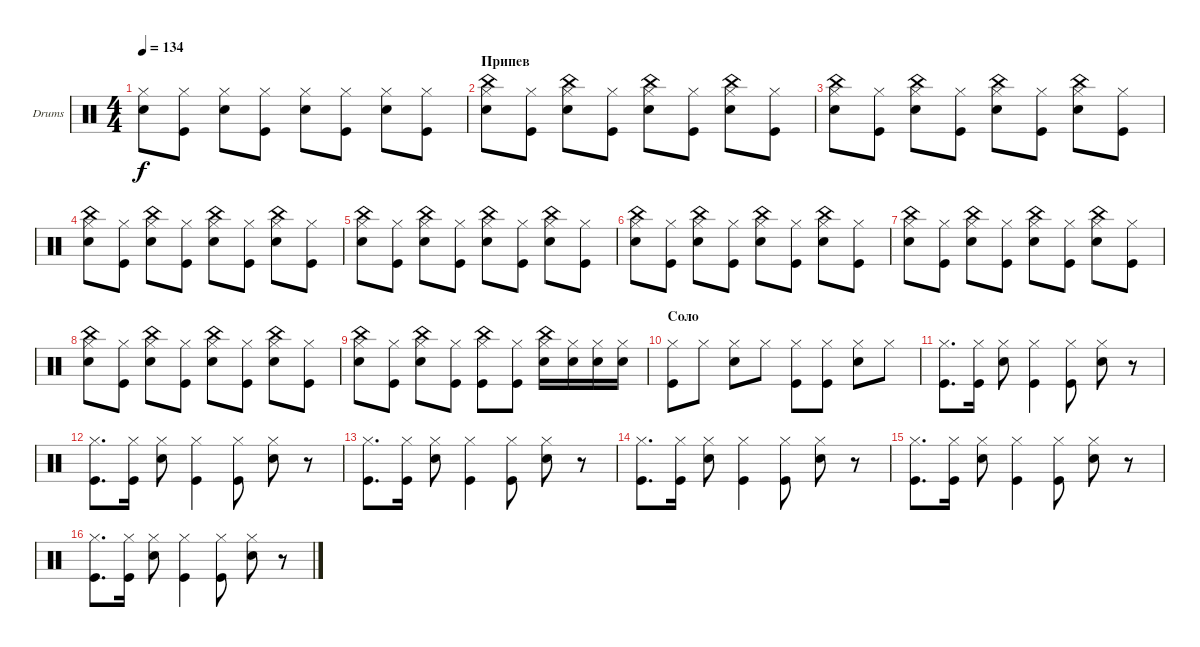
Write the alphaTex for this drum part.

\defaultSystemsLayout 4
\bracketExtendMode groupsimilarinstruments
\firstSystemTrackNameOrientation horizontal
\otherSystemsTrackNameOrientation horizontal
\track ("Drumkit" "Drums") {instrument percussion}
\staff {score}
\articulation defaults
\ts (4 4)
\tempo 134
\clef neutral
\ks c
("Snare (hit) 2" "Hi-Hat (closed)").8{dy f} ("Kick (hit)" "Hi-Hat (closed)").8 ("Snare (hit) 2" "Hi-Hat (closed)").8 ("Kick (hit)" "Hi-Hat (closed)").8 ("Snare (hit) 2" "Hi-Hat (closed)").8 ("Kick (hit)" "Hi-Hat (closed)").8 ("Snare (hit) 2" "Hi-Hat (closed)").8 ("Kick (hit)" "Hi-Hat (closed)").8 |
\section ("" "Припев")
("Snare (hit) 2" "Hi-Hat (closed)" "China (hit)").8 ("Kick (hit)" "Hi-Hat (closed)").8 ("Snare (hit) 2" "Hi-Hat (closed)" "China (hit)").8 ("Kick (hit)" "Hi-Hat (closed)").8 ("Snare (hit) 2" "Hi-Hat (closed)" "China (hit)").8 ("Kick (hit)" "Hi-Hat (closed)").8 ("Snare (hit) 2" "Hi-Hat (closed)" "China (hit)").8 ("Kick (hit)" "Hi-Hat (closed)").8 |
("Snare (hit) 2" "Hi-Hat (closed)" "China (hit)").8 ("Kick (hit)" "Hi-Hat (closed)").8 ("Snare (hit) 2" "Hi-Hat (closed)" "China (hit)").8 ("Kick (hit)" "Hi-Hat (closed)").8 ("Snare (hit) 2" "Hi-Hat (closed)" "China (hit)").8 ("Kick (hit)" "Hi-Hat (closed)").8 ("Snare (hit) 2" "Hi-Hat (closed)" "China (hit)").8 ("Kick (hit)" "Hi-Hat (closed)").8 |
("Snare (hit) 2" "Hi-Hat (closed)" "China (hit)").8 ("Kick (hit)" "Hi-Hat (closed)").8 ("Snare (hit) 2" "Hi-Hat (closed)" "China (hit)").8 ("Kick (hit)" "Hi-Hat (closed)").8 ("Snare (hit) 2" "Hi-Hat (closed)" "China (hit)").8 ("Kick (hit)" "Hi-Hat (closed)").8 ("Snare (hit) 2" "Hi-Hat (closed)" "China (hit)").8 ("Kick (hit)" "Hi-Hat (closed)").8 |
("Snare (hit) 2" "Hi-Hat (closed)" "China (hit)").8 ("Kick (hit)" "Hi-Hat (closed)").8 ("Snare (hit) 2" "Hi-Hat (closed)" "China (hit)").8 ("Kick (hit)" "Hi-Hat (closed)").8 ("Snare (hit) 2" "Hi-Hat (closed)" "China (hit)").8 ("Kick (hit)" "Hi-Hat (closed)").8 ("Snare (hit) 2" "Hi-Hat (closed)" "China (hit)").8 ("Kick (hit)" "Hi-Hat (closed)").8 |
("Snare (hit) 2" "Hi-Hat (closed)" "China (hit)").8 ("Kick (hit)" "Hi-Hat (closed)").8 ("Snare (hit) 2" "Hi-Hat (closed)" "China (hit)").8 ("Kick (hit)" "Hi-Hat (closed)").8 ("Snare (hit) 2" "Hi-Hat (closed)" "China (hit)").8 ("Kick (hit)" "Hi-Hat (closed)").8 ("Snare (hit) 2" "Hi-Hat (closed)" "China (hit)").8 ("Kick (hit)" "Hi-Hat (closed)").8 |
("Snare (hit) 2" "Hi-Hat (closed)" "China (hit)").8 ("Kick (hit)" "Hi-Hat (closed)").8 ("Snare (hit) 2" "Hi-Hat (closed)" "China (hit)").8 ("Kick (hit)" "Hi-Hat (closed)").8 ("Snare (hit) 2" "Hi-Hat (closed)" "China (hit)").8 ("Kick (hit)" "Hi-Hat (closed)").8 ("Snare (hit) 2" "Hi-Hat (closed)" "China (hit)").8 ("Kick (hit)" "Hi-Hat (closed)").8 |
("Snare (hit) 2" "Hi-Hat (closed)" "China (hit)").8 ("Kick (hit)" "Hi-Hat (closed)").8 ("Snare (hit) 2" "Hi-Hat (closed)" "China (hit)").8 ("Kick (hit)" "Hi-Hat (closed)").8 ("Snare (hit) 2" "Hi-Hat (closed)" "China (hit)").8 ("Kick (hit)" "Hi-Hat (closed)").8 ("Snare (hit) 2" "Hi-Hat (closed)" "China (hit)").8 ("Kick (hit)" "Hi-Hat (closed)").8 |
("Snare (hit) 2" "Hi-Hat (closed)" "China (hit)").8 ("Kick (hit)" "Hi-Hat (closed)").8 ("Snare (hit) 2" "Hi-Hat (closed)" "China (hit)").8 ("Kick (hit)" "Hi-Hat (closed)").8 ("Hi-Hat (closed)" "China (hit)" "Kick (hit)").8 ("Kick (hit)" "Hi-Hat (closed)").8 ("Snare (hit) 2" "Hi-Hat (closed)" "China (hit)").16 ("Hi-Hat (closed)" "Snare (hit) 2").16 ("Snare (hit) 2" "Hi-Hat (closed)").16 ("Snare (hit) 2" "Hi-Hat (closed)").16 |
\section ("" "Соло")
("Kick (hit)" "Hi-Hat (closed)").8 "Hi-Hat (closed)".8 ("Snare (hit) 2" "Hi-Hat (closed)").8 "Hi-Hat (closed)".8 ("Kick (hit)" "Hi-Hat (closed)").8 ("Kick (hit)" "Hi-Hat (closed)").8 ("Snare (hit) 2" "Hi-Hat (closed)").8 "Hi-Hat (closed)".8 |
("Kick (hit)" "Hi-Hat (closed)").8{d} ("Kick (hit)" "Hi-Hat (closed)").16 ("Snare (hit) 2" "Hi-Hat (closed)").8 ("Kick (hit)" "Hi-Hat (closed)").4 ("Kick (hit)" "Hi-Hat (closed)").8 ("Snare (hit) 2" "Hi-Hat (closed)").8 r.8 |
("Kick (hit)" "Hi-Hat (closed)").8{d} ("Kick (hit)" "Hi-Hat (closed)").16 ("Snare (hit) 2" "Hi-Hat (closed)").8 ("Kick (hit)" "Hi-Hat (closed)").4 ("Kick (hit)" "Hi-Hat (closed)").8 ("Snare (hit) 2" "Hi-Hat (closed)").8 r.8 |
("Kick (hit)" "Hi-Hat (closed)").8{d} ("Kick (hit)" "Hi-Hat (closed)").16 ("Snare (hit) 2" "Hi-Hat (closed)").8 ("Kick (hit)" "Hi-Hat (closed)").4 ("Kick (hit)" "Hi-Hat (closed)").8 ("Snare (hit) 2" "Hi-Hat (closed)").8 r.8 |
("Kick (hit)" "Hi-Hat (closed)").8{d} ("Kick (hit)" "Hi-Hat (closed)").16 ("Snare (hit) 2" "Hi-Hat (closed)").8 ("Kick (hit)" "Hi-Hat (closed)").4 ("Kick (hit)" "Hi-Hat (closed)").8 ("Snare (hit) 2" "Hi-Hat (closed)").8 r.8 |
("Kick (hit)" "Hi-Hat (closed)").8{d} ("Kick (hit)" "Hi-Hat (closed)").16 ("Snare (hit) 2" "Hi-Hat (closed)").8 ("Kick (hit)" "Hi-Hat (closed)").4 ("Kick (hit)" "Hi-Hat (closed)").8 ("Snare (hit) 2" "Hi-Hat (closed)").8 r.8 |
("Kick (hit)" "Hi-Hat (closed)").8{d} ("Kick (hit)" "Hi-Hat (closed)").16 ("Snare (hit) 2" "Hi-Hat (closed)").8 ("Kick (hit)" "Hi-Hat (closed)").4 ("Kick (hit)" "Hi-Hat (closed)").8 ("Snare (hit) 2" "Hi-Hat (closed)").8 r.8
